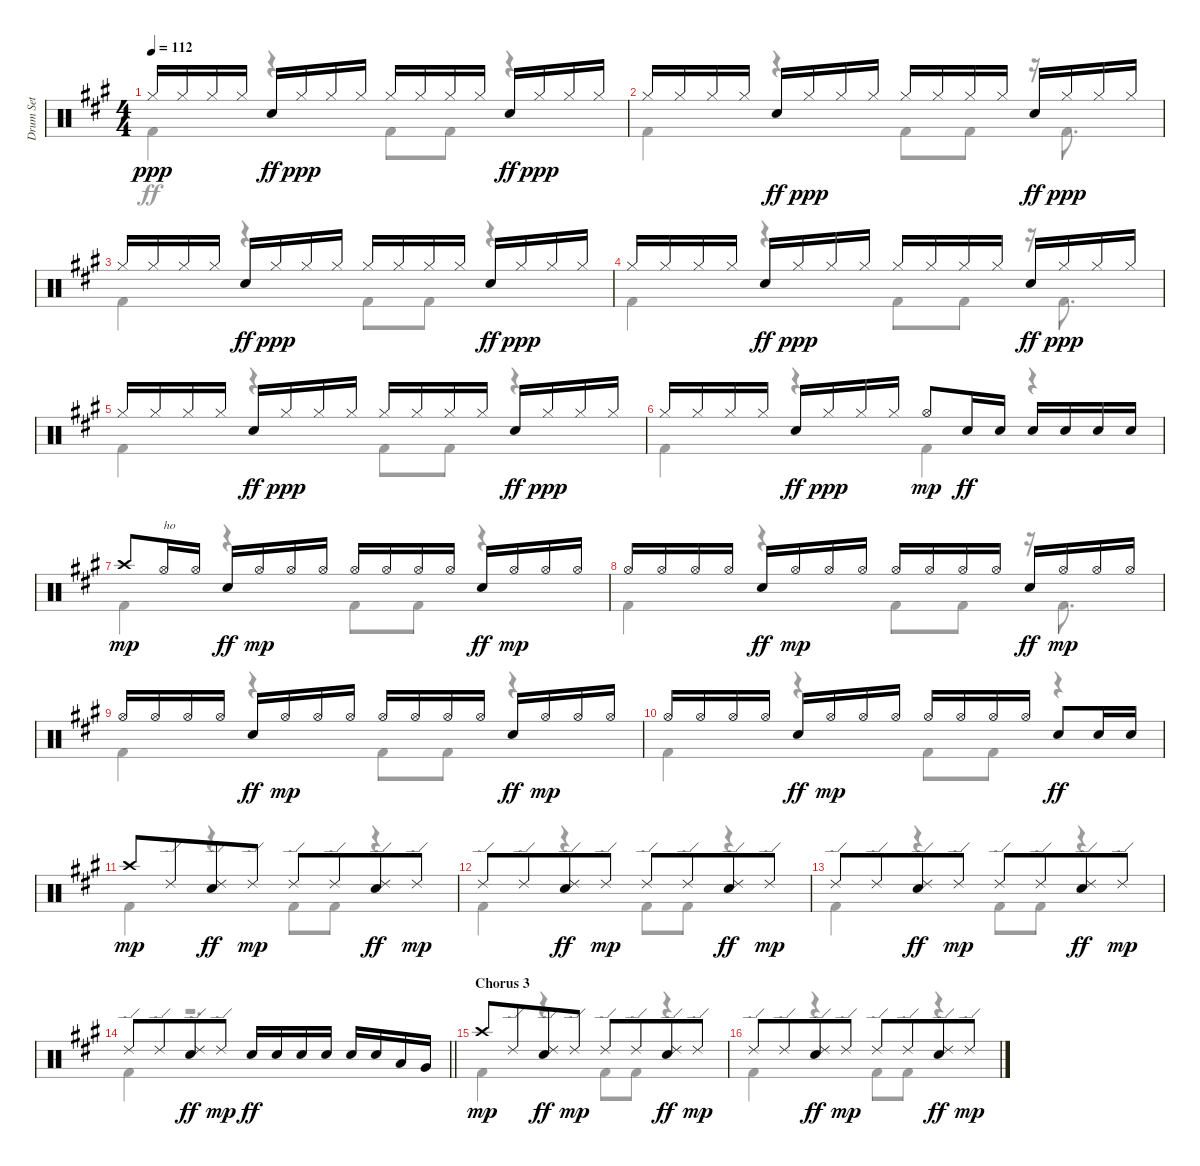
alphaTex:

\track ("Drum Set" "Drum Set") {instrument percussion}
\staff {score}
\articulation defaults
\voice
\ts (4 4)
\tempo 112
\clef neutral
\ks f#minor "Hi-Hat (closed)".16{dy ppp} "Hi-Hat (closed)".16 "Hi-Hat (closed)".16 "Hi-Hat (closed)".16 "Electric Snare (hit)".16{dy ff} "Hi-Hat (closed)".16{dy ppp} "Hi-Hat (closed)".16 "Hi-Hat (closed)".16 "Hi-Hat (closed)".16 "Hi-Hat (closed)".16 "Hi-Hat (closed)".16 "Hi-Hat (closed)".16 "Electric Snare (hit)".16{dy ff} "Hi-Hat (closed)".16{dy ppp} "Hi-Hat (closed)".16 "Hi-Hat (closed)".16
|
"Hi-Hat (closed)".16 "Hi-Hat (closed)".16 "Hi-Hat (closed)".16 "Hi-Hat (closed)".16 "Electric Snare (hit)".16{dy ff} "Hi-Hat (closed)".16{dy ppp} "Hi-Hat (closed)".16 "Hi-Hat (closed)".16 "Hi-Hat (closed)".16 "Hi-Hat (closed)".16 "Hi-Hat (closed)".16 "Hi-Hat (closed)".16 "Electric Snare (hit)".16{dy ff} "Hi-Hat (closed)".16{dy ppp} "Hi-Hat (closed)".16 "Hi-Hat (closed)".16 |
"Hi-Hat (closed)".16 "Hi-Hat (closed)".16 "Hi-Hat (closed)".16 "Hi-Hat (closed)".16 "Electric Snare (hit)".16{dy ff} "Hi-Hat (closed)".16{dy ppp} "Hi-Hat (closed)".16 "Hi-Hat (closed)".16 "Hi-Hat (closed)".16 "Hi-Hat (closed)".16 "Hi-Hat (closed)".16 "Hi-Hat (closed)".16 "Electric Snare (hit)".16{dy ff} "Hi-Hat (closed)".16{dy ppp} "Hi-Hat (closed)".16 "Hi-Hat (closed)".16 |
"Hi-Hat (closed)".16 "Hi-Hat (closed)".16 "Hi-Hat (closed)".16 "Hi-Hat (closed)".16 "Electric Snare (hit)".16{dy ff} "Hi-Hat (closed)".16{dy ppp} "Hi-Hat (closed)".16 "Hi-Hat (closed)".16 "Hi-Hat (closed)".16 "Hi-Hat (closed)".16 "Hi-Hat (closed)".16 "Hi-Hat (closed)".16 "Electric Snare (hit)".16{dy ff} "Hi-Hat (closed)".16{dy ppp} "Hi-Hat (closed)".16 "Hi-Hat (closed)".16 |
"Hi-Hat (closed)".16 "Hi-Hat (closed)".16 "Hi-Hat (closed)".16 "Hi-Hat (closed)".16 "Electric Snare (hit)".16{dy ff} "Hi-Hat (closed)".16{dy ppp} "Hi-Hat (closed)".16 "Hi-Hat (closed)".16 "Hi-Hat (closed)".16 "Hi-Hat (closed)".16 "Hi-Hat (closed)".16 "Hi-Hat (closed)".16 "Electric Snare (hit)".16{dy ff} "Hi-Hat (closed)".16{dy ppp} "Hi-Hat (closed)".16 "Hi-Hat (closed)".16 |
"Hi-Hat (closed)".16 "Hi-Hat (closed)".16 "Hi-Hat (closed)".16 "Hi-Hat (closed)".16 "Electric Snare (hit)".16{dy ff} "Hi-Hat (closed)".16{dy ppp} "Hi-Hat (closed)".16 "Hi-Hat (closed)".16 "Hi-Hat (open)".8{dy mp} "Electric Snare (hit)".16{dy ff} "Electric Snare (hit)".16 "Electric Snare (hit)".16 "Electric Snare (hit)".16 "Electric Snare (hit)".16 "Electric Snare (hit)".16 |
"Crash high (hit)".8{dy mp} "Hi-Hat (open)".16{txt "ho"} "Hi-Hat (open)".16 "Electric Snare (hit)".16{dy ff} "Hi-Hat (open)".16{dy mp} "Hi-Hat (open)".16 "Hi-Hat (open)".16 "Hi-Hat (open)".16 "Hi-Hat (open)".16 "Hi-Hat (open)".16 "Hi-Hat (open)".16 "Electric Snare (hit)".16{dy ff} "Hi-Hat (open)".16{dy mp} "Hi-Hat (open)".16 "Hi-Hat (open)".16 |
"Hi-Hat (open)".16 "Hi-Hat (open)".16 "Hi-Hat (open)".16 "Hi-Hat (open)".16 "Electric Snare (hit)".16{dy ff} "Hi-Hat (open)".16{dy mp} "Hi-Hat (open)".16 "Hi-Hat (open)".16 "Hi-Hat (open)".16 "Hi-Hat (open)".16 "Hi-Hat (open)".16 "Hi-Hat (open)".16 "Electric Snare (hit)".16{dy ff} "Hi-Hat (open)".16{dy mp} "Hi-Hat (open)".16 "Hi-Hat (open)".16 |
"Hi-Hat (open)".16 "Hi-Hat (open)".16 "Hi-Hat (open)".16 "Hi-Hat (open)".16 "Electric Snare (hit)".16{dy ff} "Hi-Hat (open)".16{dy mp} "Hi-Hat (open)".16 "Hi-Hat (open)".16 "Hi-Hat (open)".16 "Hi-Hat (open)".16 "Hi-Hat (open)".16 "Hi-Hat (open)".16 "Electric Snare (hit)".16{dy ff} "Hi-Hat (open)".16{dy mp} "Hi-Hat (open)".16 "Hi-Hat (open)".16 |
"Hi-Hat (open)".16 "Hi-Hat (open)".16 "Hi-Hat (open)".16 "Hi-Hat (open)".16 "Electric Snare (hit)".16{dy ff} "Hi-Hat (open)".16{dy mp} "Hi-Hat (open)".16 "Hi-Hat (open)".16 "Hi-Hat (open)".16 "Hi-Hat (open)".16 "Hi-Hat (open)".16 "Hi-Hat (open)".16 "Electric Snare (hit)".8{dy ff} "Electric Snare (hit)".16 "Electric Snare (hit)".16 |
"Crash high (hit)".8{dy mp} "Ride (edge) 2".8{beam merge} ("Ride (edge) 2" "Electric Snare (hit)").8{dy ff} "Ride (edge) 2".8{dy mp} "Ride (edge) 2".8 "Ride (edge) 2".8{beam merge} ("Ride (edge) 2" "Electric Snare (hit)").8{dy ff} "Ride (edge) 2".8{dy mp} |
"Ride (edge) 2".8 "Ride (edge) 2".8{beam merge} ("Ride (edge) 2" "Electric Snare (hit)").8{dy ff} "Ride (edge) 2".8{dy mp} "Ride (edge) 2".8 "Ride (edge) 2".8{beam merge} ("Ride (edge) 2" "Electric Snare (hit)").8{dy ff} "Ride (edge) 2".8{dy mp} |
"Ride (edge) 2".8 "Ride (edge) 2".8{beam merge} ("Ride (edge) 2" "Electric Snare (hit)").8{dy ff} "Ride (edge) 2".8{dy mp} "Ride (edge) 2".8 "Ride (edge) 2".8{beam merge} ("Ride (edge) 2" "Electric Snare (hit)").8{dy ff} "Ride (edge) 2".8{dy mp} |
\barLineRight lightlight "Ride (edge) 2".8 "Ride (edge) 2".8{beam merge}
("Ride (edge) 2" "Electric Snare (hit)").8{dy ff} "Ride (edge) 2".8{dy mp} "Electric Snare (hit)".16{dy ff} "Electric Snare (hit)".16 "Electric Snare (hit)".16 "Electric Snare (hit)".16 "Electric Snare (hit)".16 "Electric Snare (hit)".16 "Low Tom (hit)".16 "Very Low Tom (hit)".16 |
\section ("" "Chorus 3")
"Crash high (hit)".8{dy mp} "Ride (edge) 2".8{beam merge} ("Ride (edge) 2" "Electric Snare (hit)").8{dy ff} "Ride (edge) 2".8{dy mp} "Ride (edge) 2".8 "Ride (edge) 2".8{beam merge} ("Ride (edge) 2" "Electric Snare (hit)").8{dy ff} "Ride (edge) 2".8{dy mp} |
"Ride (edge) 2".8 "Ride (edge) 2".8{beam merge} ("Ride (edge) 2" "Electric Snare (hit)").8{dy ff} "Ride (edge) 2".8{dy mp} "Ride (edge) 2".8 "Ride (edge) 2".8{beam merge} ("Ride (edge) 2" "Electric Snare (hit)").8{dy ff} "Ride (edge) 2".8{dy mp}
\voice
\clef neutral
\ottava regular
\simile none
\ks f#minor "Kick (hit) 2".4{dy ff}
r.4 "Kick (hit) 2".8 "Kick (hit) 2".8 r.4 |
"Kick (hit) 2".4 r.4 "Kick (hit) 2".8 "Kick (hit) 2".8 r.16 "Kick (hit) 2".8{d} |
"Kick (hit) 2".4 r.4 "Kick (hit) 2".8 "Kick (hit) 2".8 r.4 |
"Kick (hit) 2".4 r.4 "Kick (hit) 2".8 "Kick (hit) 2".8 r.16 "Kick (hit) 2".8{d} |
"Kick (hit) 2".4 r.4 "Kick (hit) 2".8 "Kick (hit) 2".8 r.4 |
"Kick (hit) 2".4 r.4 "Kick (hit) 2".4 r.4 |
"Kick (hit) 2".4 r.4 "Kick (hit) 2".8 "Kick (hit) 2".8 r.4 |
"Kick (hit) 2".4 r.4 "Kick (hit) 2".8 "Kick (hit) 2".8 r.16 "Kick (hit) 2".8{d} |
"Kick (hit) 2".4 r.4 "Kick (hit) 2".8 "Kick (hit) 2".8 r.4 |
"Kick (hit) 2".4 r.4 "Kick (hit) 2".8 "Kick (hit) 2".8 r.4 |
"Kick (hit) 2".4 r.4 "Kick (hit) 2".8 "Kick (hit) 2".8 r.4 |
"Kick (hit) 2".4 r.4 "Kick (hit) 2".8 "Kick (hit) 2".8 r.4 |
"Kick (hit) 2".4 r.4 "Kick (hit) 2".8 "Kick (hit) 2".8 r.4 |
\barLineRight lightlight "Kick (hit) 2".4
r.2{d} |
"Kick (hit) 2".4 r.4 "Kick (hit) 2".8 "Kick (hit) 2".8 r.4 |
"Kick (hit) 2".4 r.4 "Kick (hit) 2".8 "Kick (hit) 2".8 r.4
